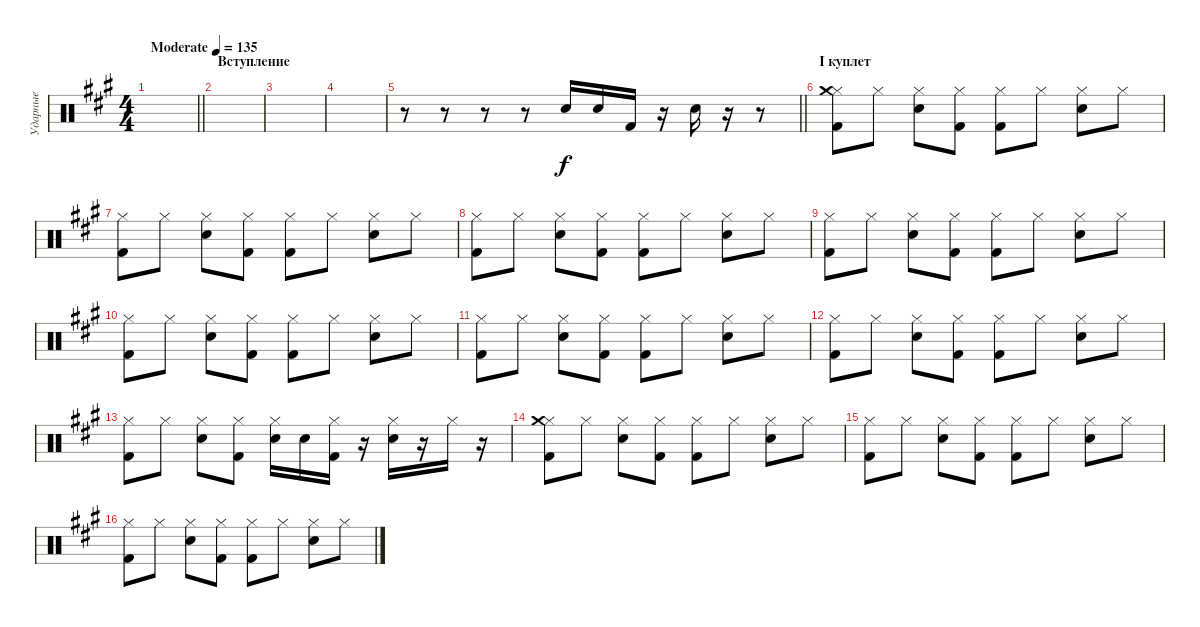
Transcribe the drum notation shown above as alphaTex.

\track ("Ударные" "Ударные") {instrument percussion}
\staff {score}
\articulation defaults
\ts (4 4)
\tempo (135 "Moderate")
\clef neutral
\barLineRight lightlight
\ks f#minor
|
\section ("" "Вступление")
|
|
|
\barLineRight lightlight
r.8 r.8 r.8 r.8 "Electric Snare (hit)".16 "Electric Snare (hit)".16 "Kick (hit) 2".16 r.16 "Electric Snare (hit)".16 r.16 r.8 |
\section ("" "I куплет")
("Hi-Hat (closed)" "Crash medium (hit)" "Kick (hit) 2").8 "Hi-Hat (closed)".8 ("Hi-Hat (closed)" "Electric Snare (hit)").8 ("Hi-Hat (closed)" "Kick (hit) 2").8 ("Hi-Hat (closed)" "Kick (hit) 2").8 "Hi-Hat (closed)".8 ("Hi-Hat (closed)" "Electric Snare (hit)").8 "Hi-Hat (closed)".8 |
("Hi-Hat (closed)" "Kick (hit) 2").8 "Hi-Hat (closed)".8 ("Hi-Hat (closed)" "Electric Snare (hit)").8 ("Hi-Hat (closed)" "Kick (hit) 2").8 ("Hi-Hat (closed)" "Kick (hit) 2").8 "Hi-Hat (closed)".8 ("Hi-Hat (closed)" "Electric Snare (hit)").8 "Hi-Hat (closed)".8 |
("Hi-Hat (closed)" "Kick (hit) 2").8 "Hi-Hat (closed)".8 ("Hi-Hat (closed)" "Electric Snare (hit)").8 ("Hi-Hat (closed)" "Kick (hit) 2").8 ("Hi-Hat (closed)" "Kick (hit) 2").8 "Hi-Hat (closed)".8 ("Hi-Hat (closed)" "Electric Snare (hit)").8 "Hi-Hat (closed)".8 |
("Hi-Hat (closed)" "Kick (hit) 2").8 "Hi-Hat (closed)".8 ("Hi-Hat (closed)" "Electric Snare (hit)").8 ("Hi-Hat (closed)" "Kick (hit) 2").8 ("Hi-Hat (closed)" "Kick (hit) 2").8 "Hi-Hat (closed)".8 ("Hi-Hat (closed)" "Electric Snare (hit)").8 "Hi-Hat (closed)".8 |
("Hi-Hat (closed)" "Kick (hit) 2").8 "Hi-Hat (closed)".8 ("Hi-Hat (closed)" "Electric Snare (hit)").8 ("Hi-Hat (closed)" "Kick (hit) 2").8 ("Hi-Hat (closed)" "Kick (hit) 2").8 "Hi-Hat (closed)".8 ("Hi-Hat (closed)" "Electric Snare (hit)").8 "Hi-Hat (closed)".8 |
("Hi-Hat (closed)" "Kick (hit) 2").8 "Hi-Hat (closed)".8 ("Hi-Hat (closed)" "Electric Snare (hit)").8 ("Hi-Hat (closed)" "Kick (hit) 2").8 ("Hi-Hat (closed)" "Kick (hit) 2").8 "Hi-Hat (closed)".8 ("Hi-Hat (closed)" "Electric Snare (hit)").8 "Hi-Hat (closed)".8 |
("Hi-Hat (closed)" "Kick (hit) 2").8 "Hi-Hat (closed)".8 ("Hi-Hat (closed)" "Electric Snare (hit)").8 ("Hi-Hat (closed)" "Kick (hit) 2").8 ("Hi-Hat (closed)" "Kick (hit) 2").8 "Hi-Hat (closed)".8 ("Hi-Hat (closed)" "Electric Snare (hit)").8 "Hi-Hat (closed)".8 |
("Hi-Hat (closed)" "Kick (hit) 2").8 "Hi-Hat (closed)".8 ("Hi-Hat (closed)" "Electric Snare (hit)").8 ("Hi-Hat (closed)" "Kick (hit) 2").8 ("Hi-Hat (closed)" "Electric Snare (hit)").16 "Electric Snare (hit)".16 ("Hi-Hat (closed)" "Kick (hit) 2").16 r.16 ("Hi-Hat (closed)" "Electric Snare (hit)").16 r.16 "Hi-Hat (closed)".16 r.16 |
("Hi-Hat (closed)" "Crash medium (hit)" "Kick (hit) 2").8 "Hi-Hat (closed)".8 ("Hi-Hat (closed)" "Electric Snare (hit)").8 ("Hi-Hat (closed)" "Kick (hit) 2").8 ("Hi-Hat (closed)" "Kick (hit) 2").8 "Hi-Hat (closed)".8 ("Hi-Hat (closed)" "Electric Snare (hit)").8 "Hi-Hat (closed)".8 |
("Hi-Hat (closed)" "Kick (hit) 2").8 "Hi-Hat (closed)".8 ("Hi-Hat (closed)" "Electric Snare (hit)").8 ("Hi-Hat (closed)" "Kick (hit) 2").8 ("Hi-Hat (closed)" "Kick (hit) 2").8 "Hi-Hat (closed)".8 ("Hi-Hat (closed)" "Electric Snare (hit)").8 "Hi-Hat (closed)".8 |
("Hi-Hat (closed)" "Kick (hit) 2").8 "Hi-Hat (closed)".8 ("Hi-Hat (closed)" "Electric Snare (hit)").8 ("Hi-Hat (closed)" "Kick (hit) 2").8 ("Hi-Hat (closed)" "Kick (hit) 2").8 "Hi-Hat (closed)".8 ("Hi-Hat (closed)" "Electric Snare (hit)").8 "Hi-Hat (closed)".8
